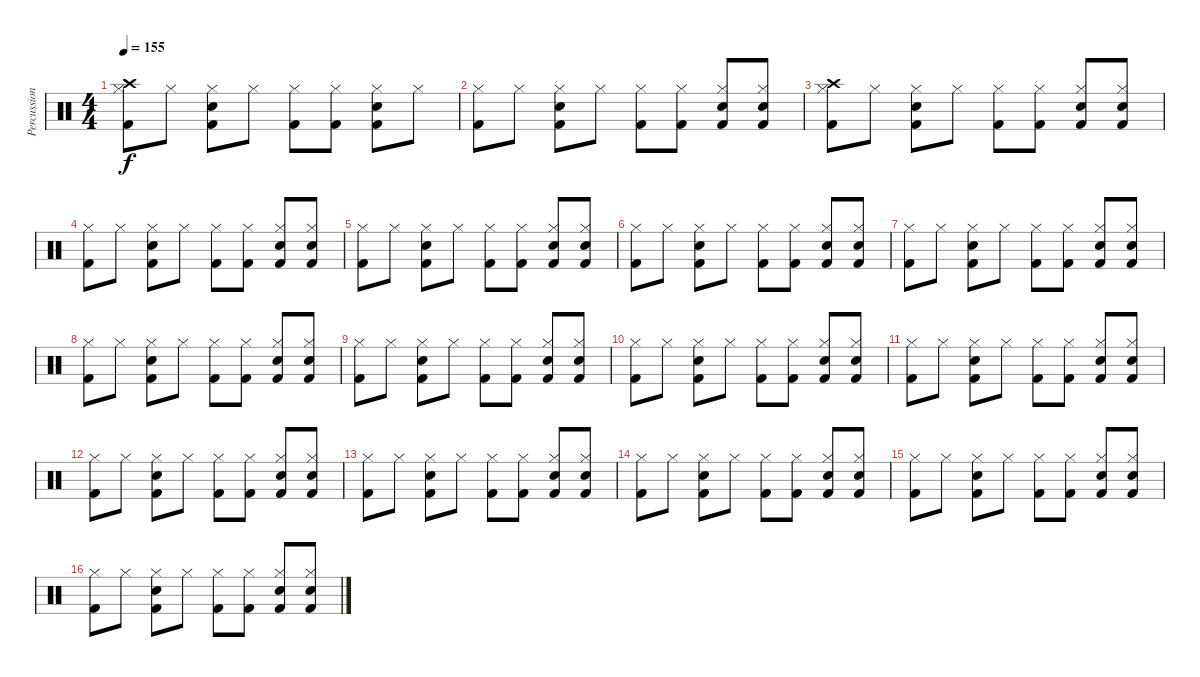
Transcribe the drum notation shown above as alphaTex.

\track ("Percussion" "Percussion") {instrument percussion}
\staff {score}
\articulation defaults
\ts (4 4)
\tempo 155
\clef neutral
\ks c
("Crash high (hit)" "Kick (hit) 2" "Hi-Hat (closed)").8{dy f} "Hi-Hat (closed)".8 ("Kick (hit) 2" "Snare (hit) 2" "Hi-Hat (closed)").8 "Hi-Hat (closed)".8 ("Kick (hit) 2" "Hi-Hat (closed)").8 ("Kick (hit) 2" "Hi-Hat (closed)").8 ("Kick (hit) 2" "Snare (hit) 2" "Hi-Hat (closed)").8 "Hi-Hat (closed)".8 |
("Kick (hit) 2" "Hi-Hat (closed)").8 "Hi-Hat (closed)".8 ("Kick (hit) 2" "Snare (hit) 2" "Hi-Hat (closed)").8 "Hi-Hat (closed)".8 ("Kick (hit) 2" "Hi-Hat (closed)").8 ("Kick (hit) 2" "Hi-Hat (closed)").8 ("Kick (hit) 2" "Snare (hit) 2" "Hi-Hat (closed)").8 ("Kick (hit) 2" "Snare (hit) 2" "Hi-Hat (closed)").8 |
("Crash high (hit)" "Kick (hit) 2" "Hi-Hat (closed)").8 "Hi-Hat (closed)".8 ("Kick (hit) 2" "Snare (hit) 2" "Hi-Hat (closed)").8 "Hi-Hat (closed)".8 ("Kick (hit) 2" "Hi-Hat (closed)").8 ("Kick (hit) 2" "Hi-Hat (closed)").8 ("Kick (hit) 2" "Snare (hit) 2" "Hi-Hat (closed)").8 ("Kick (hit) 2" "Snare (hit) 2" "Hi-Hat (closed)").8 |
("Kick (hit) 2" "Hi-Hat (closed)").8 "Hi-Hat (closed)".8 ("Kick (hit) 2" "Snare (hit) 2" "Hi-Hat (closed)").8 "Hi-Hat (closed)".8 ("Kick (hit) 2" "Hi-Hat (closed)").8 ("Kick (hit) 2" "Hi-Hat (closed)").8 ("Kick (hit) 2" "Snare (hit) 2" "Hi-Hat (closed)").8 ("Kick (hit) 2" "Snare (hit) 2" "Hi-Hat (closed)").8 |
("Kick (hit) 2" "Hi-Hat (closed)").8 "Hi-Hat (closed)".8 ("Kick (hit) 2" "Snare (hit) 2" "Hi-Hat (closed)").8 "Hi-Hat (closed)".8 ("Kick (hit) 2" "Hi-Hat (closed)").8 ("Kick (hit) 2" "Hi-Hat (closed)").8 ("Kick (hit) 2" "Snare (hit) 2" "Hi-Hat (closed)").8 ("Kick (hit) 2" "Snare (hit) 2" "Hi-Hat (closed)").8 |
("Kick (hit) 2" "Hi-Hat (closed)").8 "Hi-Hat (closed)".8 ("Kick (hit) 2" "Snare (hit) 2" "Hi-Hat (closed)").8 "Hi-Hat (closed)".8 ("Kick (hit) 2" "Hi-Hat (closed)").8 ("Kick (hit) 2" "Hi-Hat (closed)").8 ("Kick (hit) 2" "Snare (hit) 2" "Hi-Hat (closed)").8 ("Kick (hit) 2" "Snare (hit) 2" "Hi-Hat (closed)").8 |
("Kick (hit) 2" "Hi-Hat (closed)").8 "Hi-Hat (closed)".8 ("Kick (hit) 2" "Snare (hit) 2" "Hi-Hat (closed)").8 "Hi-Hat (closed)".8 ("Kick (hit) 2" "Hi-Hat (closed)").8 ("Kick (hit) 2" "Hi-Hat (closed)").8 ("Kick (hit) 2" "Snare (hit) 2" "Hi-Hat (closed)").8 ("Kick (hit) 2" "Snare (hit) 2" "Hi-Hat (closed)").8 |
("Kick (hit) 2" "Hi-Hat (closed)").8 "Hi-Hat (closed)".8 ("Kick (hit) 2" "Snare (hit) 2" "Hi-Hat (closed)").8 "Hi-Hat (closed)".8 ("Kick (hit) 2" "Hi-Hat (closed)").8 ("Kick (hit) 2" "Hi-Hat (closed)").8 ("Kick (hit) 2" "Snare (hit) 2" "Hi-Hat (closed)").8 ("Kick (hit) 2" "Snare (hit) 2" "Hi-Hat (closed)").8 |
("Kick (hit) 2" "Hi-Hat (closed)").8 "Hi-Hat (closed)".8 ("Kick (hit) 2" "Snare (hit) 2" "Hi-Hat (closed)").8 "Hi-Hat (closed)".8 ("Kick (hit) 2" "Hi-Hat (closed)").8 ("Kick (hit) 2" "Hi-Hat (closed)").8 ("Kick (hit) 2" "Snare (hit) 2" "Hi-Hat (closed)").8 ("Kick (hit) 2" "Snare (hit) 2" "Hi-Hat (closed)").8 |
("Kick (hit) 2" "Hi-Hat (closed)").8 "Hi-Hat (closed)".8 ("Kick (hit) 2" "Snare (hit) 2" "Hi-Hat (closed)").8 "Hi-Hat (closed)".8 ("Kick (hit) 2" "Hi-Hat (closed)").8 ("Kick (hit) 2" "Hi-Hat (closed)").8 ("Kick (hit) 2" "Snare (hit) 2" "Hi-Hat (closed)").8 ("Kick (hit) 2" "Snare (hit) 2" "Hi-Hat (closed)").8 |
("Kick (hit) 2" "Hi-Hat (closed)").8 "Hi-Hat (closed)".8 ("Kick (hit) 2" "Snare (hit) 2" "Hi-Hat (closed)").8 "Hi-Hat (closed)".8 ("Kick (hit) 2" "Hi-Hat (closed)").8 ("Kick (hit) 2" "Hi-Hat (closed)").8 ("Kick (hit) 2" "Snare (hit) 2" "Hi-Hat (closed)").8 ("Kick (hit) 2" "Snare (hit) 2" "Hi-Hat (closed)").8 |
("Kick (hit) 2" "Hi-Hat (closed)").8 "Hi-Hat (closed)".8 ("Kick (hit) 2" "Snare (hit) 2" "Hi-Hat (closed)").8 "Hi-Hat (closed)".8 ("Kick (hit) 2" "Hi-Hat (closed)").8 ("Kick (hit) 2" "Hi-Hat (closed)").8 ("Kick (hit) 2" "Snare (hit) 2" "Hi-Hat (closed)").8 ("Kick (hit) 2" "Snare (hit) 2" "Hi-Hat (closed)").8 |
("Kick (hit) 2" "Hi-Hat (closed)").8 "Hi-Hat (closed)".8 ("Kick (hit) 2" "Snare (hit) 2" "Hi-Hat (closed)").8 "Hi-Hat (closed)".8 ("Kick (hit) 2" "Hi-Hat (closed)").8 ("Kick (hit) 2" "Hi-Hat (closed)").8 ("Kick (hit) 2" "Snare (hit) 2" "Hi-Hat (closed)").8 ("Kick (hit) 2" "Snare (hit) 2" "Hi-Hat (closed)").8 |
("Kick (hit) 2" "Hi-Hat (closed)").8 "Hi-Hat (closed)".8 ("Kick (hit) 2" "Snare (hit) 2" "Hi-Hat (closed)").8 "Hi-Hat (closed)".8 ("Kick (hit) 2" "Hi-Hat (closed)").8 ("Kick (hit) 2" "Hi-Hat (closed)").8 ("Kick (hit) 2" "Snare (hit) 2" "Hi-Hat (closed)").8 ("Kick (hit) 2" "Snare (hit) 2" "Hi-Hat (closed)").8 |
("Kick (hit) 2" "Hi-Hat (closed)").8 "Hi-Hat (closed)".8 ("Kick (hit) 2" "Snare (hit) 2" "Hi-Hat (closed)").8 "Hi-Hat (closed)".8 ("Kick (hit) 2" "Hi-Hat (closed)").8 ("Kick (hit) 2" "Hi-Hat (closed)").8 ("Kick (hit) 2" "Snare (hit) 2" "Hi-Hat (closed)").8 ("Kick (hit) 2" "Snare (hit) 2" "Hi-Hat (closed)").8 |
("Kick (hit) 2" "Hi-Hat (closed)").8 "Hi-Hat (closed)".8 ("Kick (hit) 2" "Snare (hit) 2" "Hi-Hat (closed)").8 "Hi-Hat (closed)".8 ("Kick (hit) 2" "Hi-Hat (closed)").8 ("Kick (hit) 2" "Hi-Hat (closed)").8 ("Kick (hit) 2" "Snare (hit) 2" "Hi-Hat (closed)").8 ("Kick (hit) 2" "Snare (hit) 2" "Hi-Hat (closed)").8
